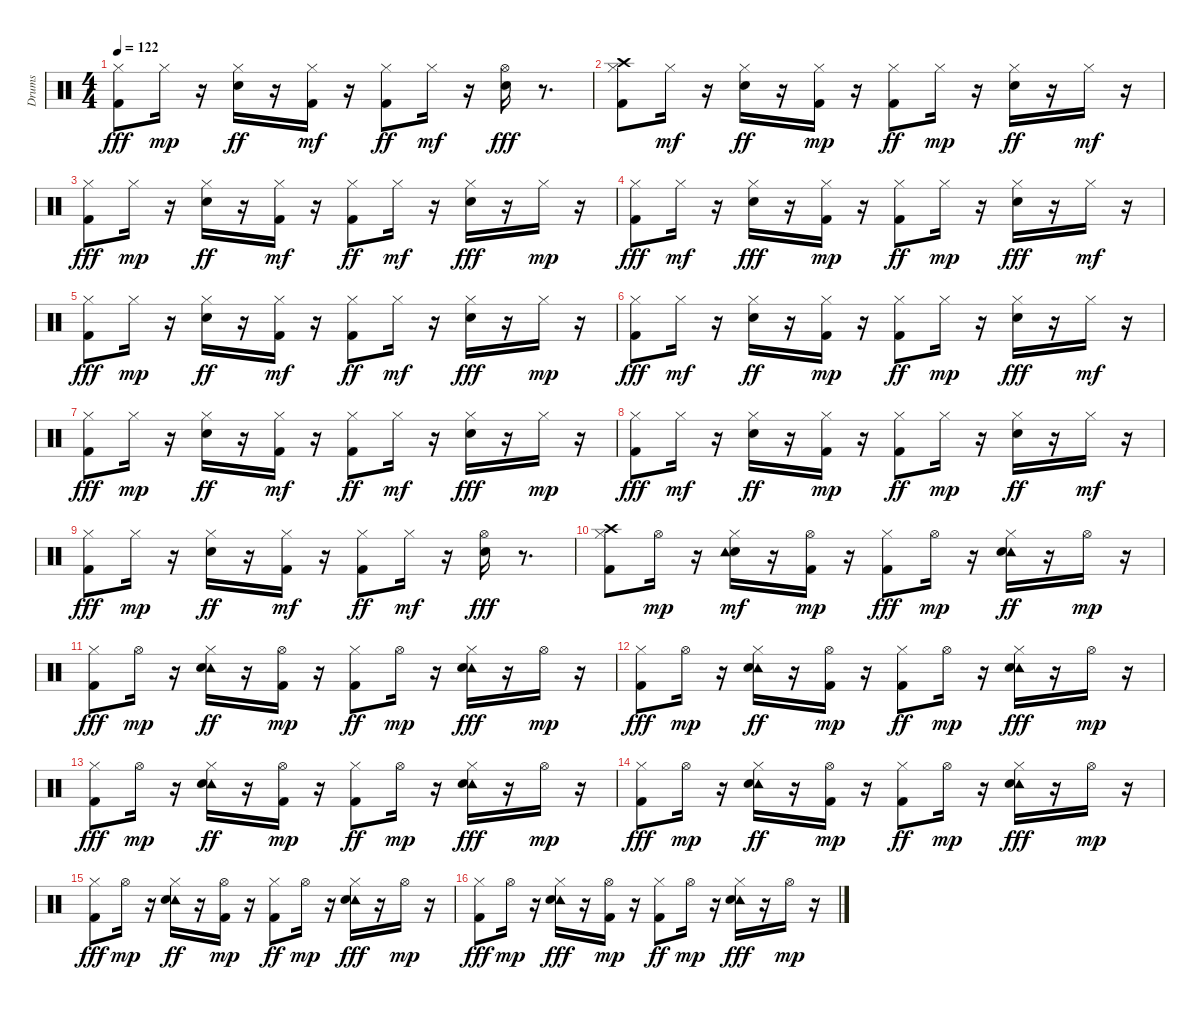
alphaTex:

\track ("Drums" "Drums") {instrument percussion}
\staff {score}
\articulation defaults
\ts (4 4)
\tempo 122
\clef neutral
\ks c
("Kick (hit) 2" "Hi-Hat (closed)").8{dy fff} "Hi-Hat (closed)".16{dy mp} r.16 ("Snare (hit) 2" "Hi-Hat (closed)").16{dy ff} r.16 ("Kick (hit) 2" "Hi-Hat (closed)").16{dy mf} r.16 ("Kick (hit) 2" "Hi-Hat (closed)").8{dy ff} "Hi-Hat (closed)".16{dy mf} r.16 ("Snare (hit) 2" "Hi-Hat (open)").16{dy fff} r.8{d} |
("Crash high (hit)" "Kick (hit) 2" "Hi-Hat (closed)").8 "Hi-Hat (closed)".16{dy mf} r.16 ("Snare (hit) 2" "Hi-Hat (closed)").16{dy ff} r.16 ("Kick (hit) 2" "Hi-Hat (closed)").16{dy mp} r.16 ("Kick (hit) 2" "Hi-Hat (closed)").8{dy ff} "Hi-Hat (closed)".16{dy mp} r.16 ("Snare (hit) 2" "Hi-Hat (closed)").16{dy ff} r.16 "Hi-Hat (closed)".16{dy mf} r.16 |
("Kick (hit) 2" "Hi-Hat (closed)").8{dy fff} "Hi-Hat (closed)".16{dy mp} r.16 ("Snare (hit) 2" "Hi-Hat (closed)").16{dy ff} r.16 ("Kick (hit) 2" "Hi-Hat (closed)").16{dy mf} r.16 ("Kick (hit) 2" "Hi-Hat (closed)").8{dy ff} "Hi-Hat (closed)".16{dy mf} r.16 ("Snare (hit) 2" "Hi-Hat (closed)").16{dy fff} r.16 "Hi-Hat (closed)".16{dy mp} r.16 |
("Hi-Hat (closed)" "Kick (hit) 2").8{dy fff} "Hi-Hat (closed)".16{dy mf} r.16 ("Hi-Hat (closed)" "Snare (hit) 2").16{dy fff} r.16 ("Kick (hit) 2" "Hi-Hat (closed)").16{dy mp} r.16 ("Kick (hit) 2" "Hi-Hat (closed)").8{dy ff} "Hi-Hat (closed)".16{dy mp} r.16 ("Hi-Hat (closed)" "Snare (hit) 2").16{dy fff} r.16 "Hi-Hat (closed)".16{dy mf} r.16 |
("Kick (hit) 2" "Hi-Hat (closed)").8{dy fff} "Hi-Hat (closed)".16{dy mp} r.16 ("Snare (hit) 2" "Hi-Hat (closed)").16{dy ff} r.16 ("Kick (hit) 2" "Hi-Hat (closed)").16{dy mf} r.16 ("Kick (hit) 2" "Hi-Hat (closed)").8{dy ff} "Hi-Hat (closed)".16{dy mf} r.16 ("Snare (hit) 2" "Hi-Hat (closed)").16{dy fff} r.16 "Hi-Hat (closed)".16{dy mp} r.16 |
("Kick (hit) 2" "Hi-Hat (closed)").8{dy fff} "Hi-Hat (closed)".16{dy mf} r.16 ("Snare (hit) 2" "Hi-Hat (closed)").16{dy ff} r.16 ("Kick (hit) 2" "Hi-Hat (closed)").16{dy mp} r.16 ("Kick (hit) 2" "Hi-Hat (closed)").8{dy ff} "Hi-Hat (closed)".16{dy mp} r.16 ("Hi-Hat (closed)" "Snare (hit) 2").16{dy fff} r.16 "Hi-Hat (closed)".16{dy mf} r.16 |
("Kick (hit) 2" "Hi-Hat (closed)").8{dy fff} "Hi-Hat (closed)".16{dy mp} r.16 ("Snare (hit) 2" "Hi-Hat (closed)").16{dy ff} r.16 ("Kick (hit) 2" "Hi-Hat (closed)").16{dy mf} r.16 ("Kick (hit) 2" "Hi-Hat (closed)").8{dy ff} "Hi-Hat (closed)".16{dy mf} r.16 ("Snare (hit) 2" "Hi-Hat (closed)").16{dy fff} r.16 "Hi-Hat (closed)".16{dy mp} r.16 |
("Hi-Hat (closed)" "Kick (hit) 2").8{dy fff} "Hi-Hat (closed)".16{dy mf} r.16 ("Snare (hit) 2" "Hi-Hat (closed)").16{dy ff} r.16 ("Kick (hit) 2" "Hi-Hat (closed)").16{dy mp} r.16 ("Kick (hit) 2" "Hi-Hat (closed)").8{dy ff} "Hi-Hat (closed)".16{dy mp} r.16 ("Snare (hit) 2" "Hi-Hat (closed)").16{dy ff} r.16 "Hi-Hat (closed)".16{dy mf} r.16 |
("Kick (hit) 2" "Hi-Hat (closed)").8{dy fff} "Hi-Hat (closed)".16{dy mp} r.16 ("Snare (hit) 2" "Hi-Hat (closed)").16{dy ff} r.16 ("Kick (hit) 2" "Hi-Hat (closed)").16{dy mf} r.16 ("Kick (hit) 2" "Hi-Hat (closed)").8{dy ff} "Hi-Hat (closed)".16{dy mf} r.16 ("Hi-Hat (open)" "Snare (hit) 2").16{dy fff} r.8{d} |
("Hi-Hat (closed)" "Crash high (hit)" "Kick (hit) 2").8 "Hi-Hat (open)".16{dy mp} r.16 ("Snare (hit) 2" "Hi-Hat (closed)" "Tambourine (hit)").16{dy mf} r.16 ("Kick (hit) 2" "Hi-Hat (open)").16{dy mp} r.16 ("Hi-Hat (closed)" "Kick (hit) 2").8{dy fff} "Hi-Hat (open)".16{dy mp} r.16 ("Tambourine (hit)" "Snare (hit) 2" "Hi-Hat (closed)").16{dy ff} r.16 "Hi-Hat (open)".16{dy mp} r.16 |
("Kick (hit) 2" "Hi-Hat (closed)").8{dy fff} "Hi-Hat (open)".16{dy mp} r.16 ("Tambourine (hit)" "Snare (hit) 2" "Hi-Hat (closed)").16{dy ff} r.16 ("Kick (hit) 2" "Hi-Hat (open)").16{dy mp} r.16 ("Kick (hit) 2" "Hi-Hat (closed)").8{dy ff} "Hi-Hat (open)".16{dy mp} r.16 ("Tambourine (hit)" "Snare (hit) 2" "Hi-Hat (closed)").16{dy fff} r.16 "Hi-Hat (open)".16{dy mp} r.16 |
("Hi-Hat (closed)" "Kick (hit) 2").8{dy fff} "Hi-Hat (open)".16{dy mp} r.16 ("Tambourine (hit)" "Snare (hit) 2" "Hi-Hat (closed)").16{dy ff} r.16 ("Kick (hit) 2" "Hi-Hat (open)").16{dy mp} r.16 ("Kick (hit) 2" "Hi-Hat (closed)").8{dy ff} "Hi-Hat (open)".16{dy mp} r.16 ("Tambourine (hit)" "Hi-Hat (closed)" "Snare (hit) 2").16{dy fff} r.16 "Hi-Hat (open)".16{dy mp} r.16 |
("Kick (hit) 2" "Hi-Hat (closed)").8{dy fff} "Hi-Hat (open)".16{dy mp} r.16 ("Tambourine (hit)" "Snare (hit) 2" "Hi-Hat (closed)").16{dy ff} r.16 ("Kick (hit) 2" "Hi-Hat (open)").16{dy mp} r.16 ("Kick (hit) 2" "Hi-Hat (closed)").8{dy ff} "Hi-Hat (open)".16{dy mp} r.16 ("Tambourine (hit)" "Snare (hit) 2" "Hi-Hat (closed)").16{dy fff} r.16 "Hi-Hat (open)".16{dy mp} r.16 |
("Kick (hit) 2" "Hi-Hat (closed)").8{dy fff} "Hi-Hat (open)".16{dy mp} r.16 ("Tambourine (hit)" "Snare (hit) 2" "Hi-Hat (closed)").16{dy ff} r.16 ("Kick (hit) 2" "Hi-Hat (open)").16{dy mp} r.16 ("Kick (hit) 2" "Hi-Hat (closed)").8{dy ff} "Hi-Hat (open)".16{dy mp} r.16 ("Tambourine (hit)" "Hi-Hat (closed)" "Snare (hit) 2").16{dy fff} r.16 "Hi-Hat (open)".16{dy mp} r.16 |
("Kick (hit) 2" "Hi-Hat (closed)").8{dy fff} "Hi-Hat (open)".16{dy mp} r.16 ("Tambourine (hit)" "Snare (hit) 2" "Hi-Hat (closed)").16{dy ff} r.16 ("Kick (hit) 2" "Hi-Hat (open)").16{dy mp} r.16 ("Kick (hit) 2" "Hi-Hat (closed)").8{dy ff} "Hi-Hat (open)".16{dy mp} r.16 ("Tambourine (hit)" "Snare (hit) 2" "Hi-Hat (closed)").16{dy fff} r.16 "Hi-Hat (open)".16{dy mp} r.16 |
("Hi-Hat (closed)" "Kick (hit) 2").8{dy fff} "Hi-Hat (open)".16{dy mp} r.16 ("Tambourine (hit)" "Hi-Hat (closed)" "Snare (hit) 2").16{dy fff} r.16 ("Kick (hit) 2" "Hi-Hat (open)").16{dy mp} r.16 ("Kick (hit) 2" "Hi-Hat (closed)").8{dy ff} "Hi-Hat (open)".16{dy mp} r.16 ("Tambourine (hit)" "Hi-Hat (closed)" "Snare (hit) 2").16{dy fff} r.16 "Hi-Hat (open)".16{dy mp} r.16
